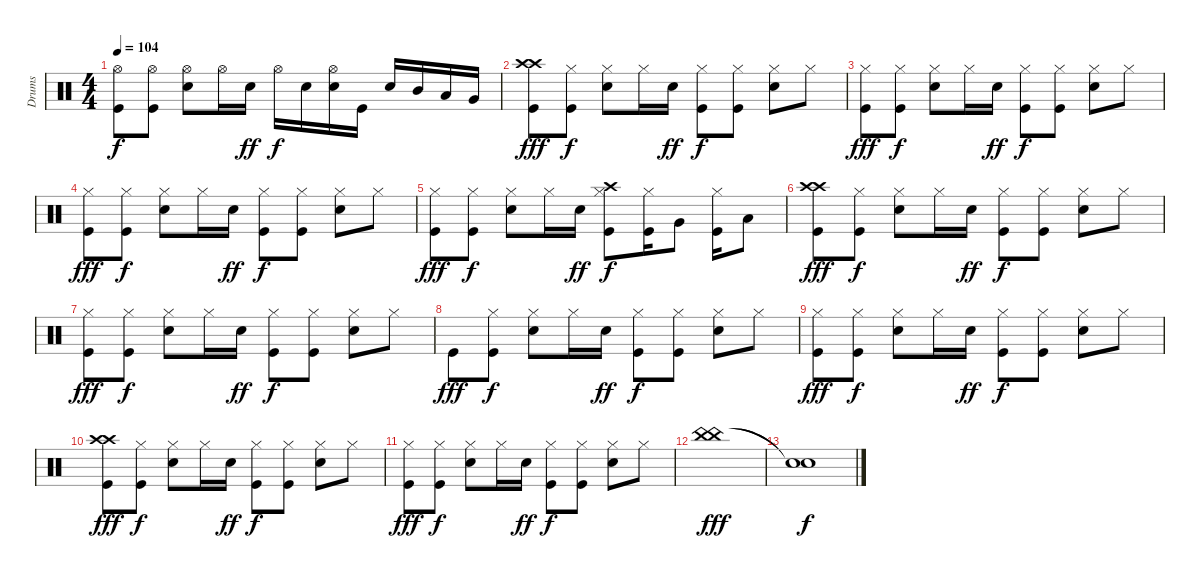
\track ("Drums" "Drums") {instrument percussion}
\staff {score}
\articulation defaults
\ts (4 4)
\tempo 104
\clef neutral
\ks c
("Hi-Hat (open)" "Kick (hit)").8{dy f} ("Hi-Hat (open)" "Kick (hit)").8 ("Hi-Hat (open)" "Snare (hit) 2").8 "Hi-Hat (open)".16 "Snare (hit) 2".16{dy ff} "Hi-Hat (open)".16{dy f} "Snare (hit) 2".16 ("Hi-Hat (open)" "Snare (hit) 2").16 "Kick (hit)".16 "Snare (hit) 2".16 "Mid Tom (hit)".16 "Low Tom (hit)".16 "Very Low Tom (hit)".16 |
("Crash high (hit)" "Crash high (hit)" "Kick (hit)").8{dy fff} ("Hi-Hat (closed)" "Kick (hit)").8{dy f} ("Hi-Hat (closed)" "Snare (hit) 2").8 "Hi-Hat (closed)".16 "Snare (hit) 2".16{dy ff} ("Hi-Hat (closed)" "Kick (hit)").8{dy f} ("Hi-Hat (closed)" "Kick (hit)").8 ("Hi-Hat (closed)" "Snare (hit) 2").8 "Hi-Hat (closed)".8 |
("Hi-Hat (closed)" "Kick (hit)").8{dy fff} ("Hi-Hat (closed)" "Kick (hit)").8{dy f} ("Hi-Hat (closed)" "Snare (hit) 2").8 "Hi-Hat (closed)".16 "Snare (hit) 2".16{dy ff} ("Hi-Hat (closed)" "Kick (hit)").8{dy f} ("Hi-Hat (closed)" "Kick (hit)").8 ("Hi-Hat (closed)" "Snare (hit) 2").8 "Hi-Hat (closed)".8 |
("Hi-Hat (closed)" "Kick (hit)").8{dy fff} ("Hi-Hat (closed)" "Kick (hit)").8{dy f} ("Hi-Hat (closed)" "Snare (hit) 2").8 "Hi-Hat (closed)".16 "Snare (hit) 2".16{dy ff} ("Hi-Hat (closed)" "Kick (hit)").8{dy f} ("Hi-Hat (closed)" "Kick (hit)").8 ("Hi-Hat (closed)" "Snare (hit) 2").8 "Hi-Hat (closed)".8 |
("Hi-Hat (closed)" "Kick (hit)").8{dy fff} ("Hi-Hat (closed)" "Kick (hit)").8{dy f} ("Hi-Hat (closed)" "Snare (hit) 2").8 "Hi-Hat (closed)".16 "Snare (hit) 2".16{dy ff} ("Crash high (hit)" "Hi-Hat (closed)" "Kick (hit)").8{dy f} ("Hi-Hat (closed)" "Kick (hit)").16 "Very Low Tom (hit)".8 ("Hi-Hat (closed)" "Kick (hit)").16 "Low Tom (hit)".8 |
("Crash high (hit)" "Crash high (hit)" "Kick (hit)").8{dy fff} ("Hi-Hat (closed)" "Kick (hit)").8{dy f} ("Hi-Hat (closed)" "Snare (hit) 2").8 "Hi-Hat (closed)".16 "Snare (hit) 2".16{dy ff} ("Hi-Hat (closed)" "Kick (hit)").8{dy f} ("Hi-Hat (closed)" "Kick (hit)").8 ("Hi-Hat (closed)" "Snare (hit) 2").8 "Hi-Hat (closed)".8 |
("Hi-Hat (closed)" "Kick (hit)").8{dy fff} ("Hi-Hat (closed)" "Kick (hit)").8{dy f} ("Hi-Hat (closed)" "Snare (hit) 2").8 "Hi-Hat (closed)".16 "Snare (hit) 2".16{dy ff} ("Hi-Hat (closed)" "Kick (hit)").8{dy f} ("Hi-Hat (closed)" "Kick (hit)").8 ("Hi-Hat (closed)" "Snare (hit) 2").8 "Hi-Hat (closed)".8 |
"Kick (hit)".8{dy fff} ("Hi-Hat (closed)" "Kick (hit)").8{dy f} ("Hi-Hat (closed)" "Snare (hit) 2").8 "Hi-Hat (closed)".16 "Snare (hit) 2".16{dy ff} ("Hi-Hat (closed)" "Kick (hit)").8{dy f} ("Hi-Hat (closed)" "Kick (hit)").8 ("Hi-Hat (closed)" "Snare (hit) 2").8 "Hi-Hat (closed)".8 |
("Hi-Hat (closed)" "Kick (hit)").8{dy fff} ("Hi-Hat (closed)" "Kick (hit)").8{dy f} ("Hi-Hat (closed)" "Snare (hit) 2").8 "Hi-Hat (closed)".16 "Snare (hit) 2".16{dy ff} ("Hi-Hat (closed)" "Kick (hit)").8{dy f} ("Hi-Hat (closed)" "Kick (hit)").8 ("Hi-Hat (closed)" "Snare (hit) 2").8 "Hi-Hat (closed)".8 |
("Crash high (hit)" "Crash high (hit)" "Kick (hit)").8{dy fff} ("Hi-Hat (closed)" "Kick (hit)").8{dy f} ("Hi-Hat (closed)" "Snare (hit) 2").8 "Hi-Hat (closed)".16 "Snare (hit) 2".16{dy ff} ("Hi-Hat (closed)" "Kick (hit)").8{dy f} ("Hi-Hat (closed)" "Kick (hit)").8 ("Hi-Hat (closed)" "Snare (hit) 2").8 "Hi-Hat (closed)".8 |
("Hi-Hat (closed)" "Kick (hit)").8{dy fff} ("Hi-Hat (closed)" "Kick (hit)").8{dy f} ("Hi-Hat (closed)" "Snare (hit) 2").8 "Hi-Hat (closed)".16 "Snare (hit) 2".16{dy ff} ("Hi-Hat (closed)" "Kick (hit)").8{dy f} ("Hi-Hat (closed)" "Kick (hit)").8 ("Hi-Hat (closed)" "Snare (hit) 2").8 "Hi-Hat (closed)".8 |
("China (hit)" "China (hit)").1{dy fff} |
("Snare (hit)"{t} "Snare (hit)"{t}).1{dy f}
